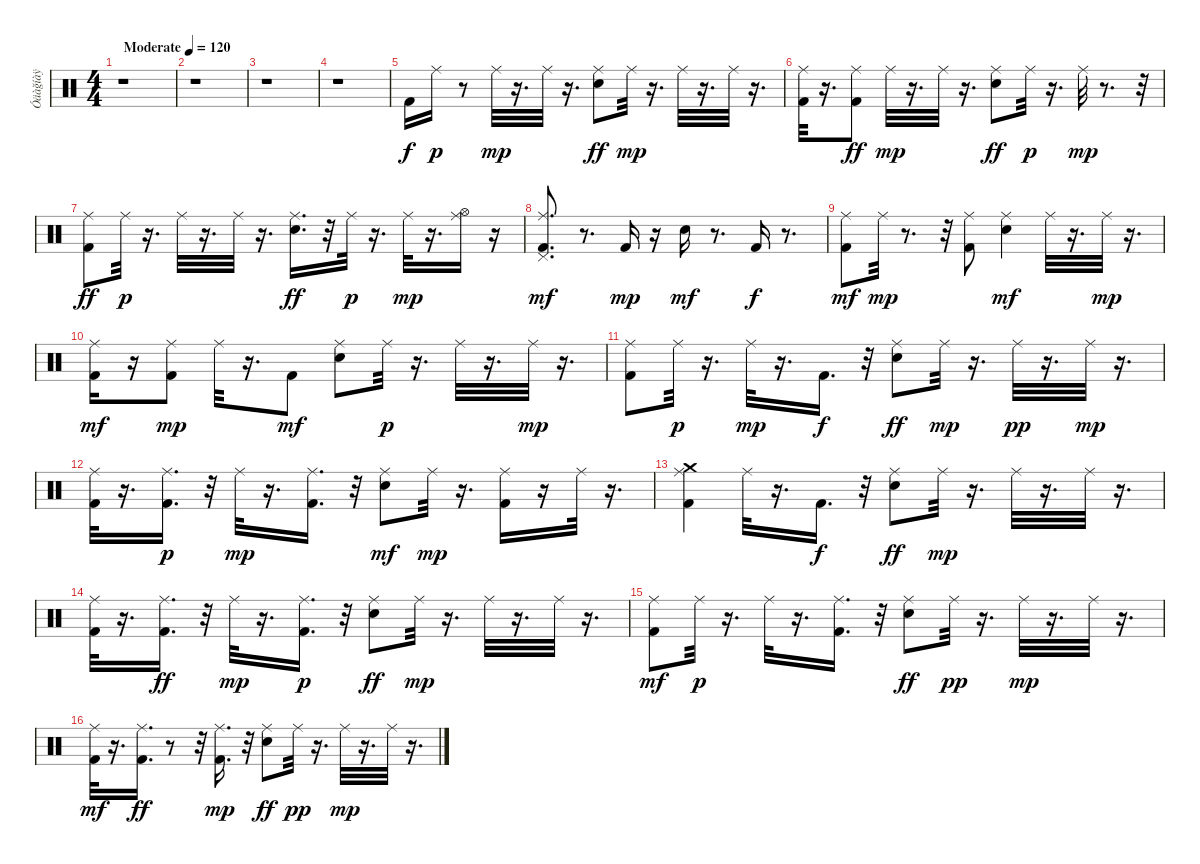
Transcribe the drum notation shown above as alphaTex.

\track ("Óäàğíàÿ" "Óäàğíàÿ") {instrument percussion}
\staff {score}
\articulation defaults
\ts (4 4)
\tempo (120 "Moderate")
\clef neutral
\ks c
r.1{dy f} |
r.1 |
r.1 |
r.1 |
"Kick (hit) 2".16 "Ride (middle)".16{dy p} r.8 "Ride (middle)".32{dy mp} r.16{d} "Ride (middle)".32 r.16{d} ("Ride (middle)" "Snare (hit) 2").8{dy ff} "Ride (middle)".32{dy mp} r.16{d} "Ride (middle)".32 r.16{d} "Ride (middle)".32 r.16{d} |
("Kick (hit) 2" "Ride (middle)").32 r.16{d} ("Ride (middle)" "Kick (hit) 2").8{dy ff} "Ride (middle)".32{dy mp} r.16{d} "Ride (middle)".32 r.16{d} ("Ride (middle)" "Snare (hit) 2").8{dy ff} "Ride (middle)".32{dy p} r.16{d} "Ride (middle)".32{dy mp} r.8{d} r.32 |
("Ride (middle)" "Kick (hit) 2").8{dy ff} "Ride (middle)".32{dy p} r.16{d} "Ride (middle)".32 r.16{d} "Ride (middle)".32 r.16{d} ("Ride (middle)" "Snare (hit) 2").16{d dy ff} r.32 "Ride (middle)".32{dy p} r.16{d} "Ride (middle)".32{dy mp} r.16{d} ("Ride (middle)" "Hi-Hat (open)").16 r.16 |
("Ride (middle)" "Pedal Hi-Hat (hit)" "Kick (hit) 2").8{d dy mf} r.8{d} "Kick (hit) 2".16{dy mp} r.16 "Snare (hit) 2".16{dy mf} r.8{d} "Kick (hit) 2".16{dy f} r.8{d} |
("Ride (middle)" "Kick (hit) 2").8{dy mf} "Ride (middle)".32{dy mp} r.8{d} r.32 ("Kick (hit) 2" "Ride (middle)").8 ("Snare (hit) 2" "Ride (middle)").4{dy mf} "Ride (middle)".32 r.16{d} "Ride (middle)".32{dy mp} r.16{d} |
("Ride (middle)" "Kick (hit) 2").16{dy mf} r.16 ("Kick (hit) 2" "Ride (middle)").8{dy mp} "Ride (middle)".32 r.16{d} "Kick (hit) 2".8{dy mf} ("Ride (middle)" "Snare (hit) 2").8 "Ride (middle)".32{dy p} r.16{d} "Ride (middle)".32 r.16{d} "Ride (middle)".32{dy mp} r.16{d} |
("Kick (hit) 2" "Ride (middle)").8 "Ride (middle)".32{dy p} r.16{d} "Ride (middle)".32{dy mp} r.16{d} "Kick (hit) 2".16{d dy f} r.32 ("Ride (middle)" "Snare (hit) 2").8{dy ff} "Ride (middle)".32{dy mp} r.16{d} "Ride (middle)".32{dy pp} r.16{d} "Ride (middle)".32{dy mp} r.16{d} |
("Kick (hit) 2" "Ride (middle)").32 r.16{d} ("Kick (hit) 2" "Ride (middle)").16{d dy p} r.32 "Ride (middle)".32{dy mp} r.16{d} ("Kick (hit) 2" "Ride (middle)").16{d} r.32 ("Snare (hit) 2" "Ride (middle)").8{dy mf} "Ride (middle)".32{dy mp} r.16{d} ("Kick (hit) 2" "Ride (middle)").16 r.16 "Ride (middle)".32 r.16{d} |
("Kick (hit) 2" "Crash medium (hit)" "Ride (middle)").4 "Ride (middle)".32 r.16{d} "Kick (hit) 2".16{d dy f} r.32 ("Ride (middle)" "Snare (hit) 2").8{dy ff} "Ride (middle)".32{dy mp} r.16{d} "Ride (middle)".32 r.16{d} "Ride (middle)".32 r.16{d} |
("Kick (hit) 2" "Ride (middle)").32 r.16{d} ("Ride (middle)" "Kick (hit) 2").16{d dy ff} r.32 "Ride (middle)".32{dy mp} r.16{d} ("Ride (middle)" "Kick (hit) 2").16{d dy p} r.32 ("Ride (middle)" "Snare (hit) 2").8{dy ff} "Ride (middle)".32{dy mp} r.16{d} "Ride (middle)".32 r.16{d} "Ride (middle)".32 r.16{d} |
("Ride (middle)" "Kick (hit) 2").8{dy mf} "Ride (middle)".32{dy p} r.16{d} "Ride (middle)".32 r.16{d} ("Ride (middle)" "Kick (hit) 2").16{d} r.32 ("Ride (middle)" "Snare (hit) 2").8{dy ff} "Ride (middle)".32{dy pp} r.16{d} "Ride (middle)".32{dy mp} r.16{d} "Ride (middle)".32 r.16{d} |
("Ride (middle)" "Kick (hit) 2").32{dy mf} r.16{d} ("Ride (middle)" "Kick (hit) 2").16{d dy ff} r.8 r.32 ("Ride (middle)" "Kick (hit) 2").16{d dy mp} r.32 ("Ride (middle)" "Snare (hit) 2").8{dy ff} "Ride (middle)".32{dy pp} r.16{d} "Ride (middle)".32{dy mp} r.16{d} "Ride (middle)".32 r.16{d}
